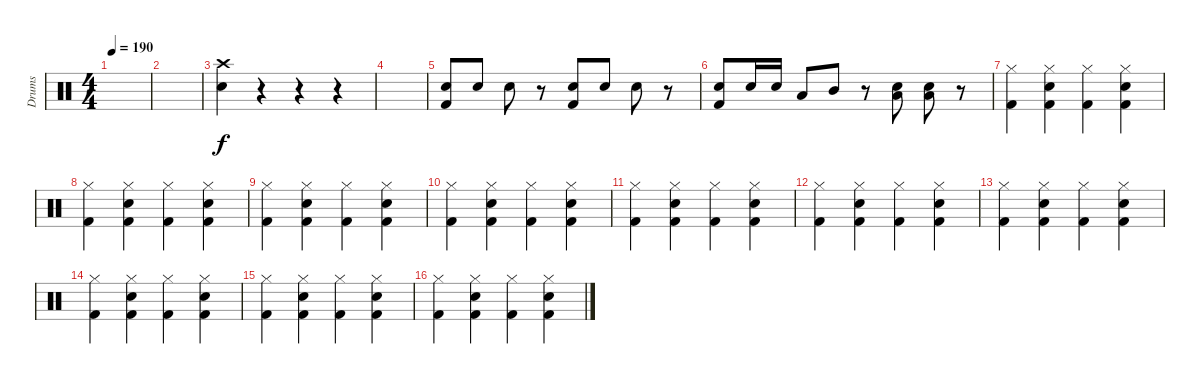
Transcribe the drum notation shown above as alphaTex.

\track ("Drums" "Drums") {instrument percussion}
\staff {score}
\articulation defaults
\ts (4 4)
\tempo 190
\clef neutral
\ks c
|
|
("Crash high (hit)" "Snare (hit) 2").4 r.4 r.4 r.4 |
|
("Snare (hit) 2" "Kick (hit) 2").8 "Snare (hit) 2".8 "Snare (hit) 2".8 r.8 ("Snare (hit) 2" "Kick (hit) 2").8 "Snare (hit) 2".8 "Snare (hit) 2".8 r.8 |
("Snare (hit) 2" "Kick (hit) 2").8 "Snare (hit) 2".16 "Snare (hit) 2".16 "Low Tom (hit)".8 "Mid Tom (hit)".8 r.8 ("Snare (hit) 2" "Low Floor Tom (hit)").8 ("Snare (hit) 2" "Low Floor Tom (hit)").8 r.8 |
("Hi-Hat (closed)" "Kick (hit) 2").4 ("Hi-Hat (closed)" "Snare (hit) 2" "Kick (hit) 2").4 ("Hi-Hat (closed)" "Kick (hit) 2").4 ("Hi-Hat (closed)" "Snare (hit) 2" "Kick (hit) 2").4 |
("Hi-Hat (closed)" "Kick (hit) 2").4 ("Hi-Hat (closed)" "Snare (hit) 2" "Kick (hit) 2").4 ("Hi-Hat (closed)" "Kick (hit) 2").4 ("Hi-Hat (closed)" "Snare (hit) 2" "Kick (hit) 2").4 |
("Hi-Hat (closed)" "Kick (hit) 2").4 ("Hi-Hat (closed)" "Snare (hit) 2" "Kick (hit) 2").4 ("Hi-Hat (closed)" "Kick (hit) 2").4 ("Hi-Hat (closed)" "Snare (hit) 2" "Kick (hit) 2").4 |
("Hi-Hat (closed)" "Kick (hit) 2").4 ("Hi-Hat (closed)" "Snare (hit) 2" "Kick (hit) 2").4 ("Hi-Hat (closed)" "Kick (hit) 2").4 ("Hi-Hat (closed)" "Snare (hit) 2" "Kick (hit) 2").4 |
("Hi-Hat (closed)" "Kick (hit) 2").4 ("Hi-Hat (closed)" "Snare (hit) 2" "Kick (hit) 2").4 ("Hi-Hat (closed)" "Kick (hit) 2").4 ("Hi-Hat (closed)" "Snare (hit) 2" "Kick (hit) 2").4 |
("Hi-Hat (closed)" "Kick (hit) 2").4 ("Hi-Hat (closed)" "Snare (hit) 2" "Kick (hit) 2").4 ("Hi-Hat (closed)" "Kick (hit) 2").4 ("Hi-Hat (closed)" "Snare (hit) 2" "Kick (hit) 2").4 |
("Hi-Hat (closed)" "Kick (hit) 2").4 ("Hi-Hat (closed)" "Snare (hit) 2" "Kick (hit) 2").4 ("Hi-Hat (closed)" "Kick (hit) 2").4 ("Hi-Hat (closed)" "Snare (hit) 2" "Kick (hit) 2").4 |
("Hi-Hat (closed)" "Kick (hit) 2").4 ("Hi-Hat (closed)" "Snare (hit) 2" "Kick (hit) 2").4 ("Hi-Hat (closed)" "Kick (hit) 2").4 ("Hi-Hat (closed)" "Snare (hit) 2" "Kick (hit) 2").4 |
("Hi-Hat (closed)" "Kick (hit) 2").4 ("Hi-Hat (closed)" "Snare (hit) 2" "Kick (hit) 2").4 ("Hi-Hat (closed)" "Kick (hit) 2").4 ("Hi-Hat (closed)" "Snare (hit) 2" "Kick (hit) 2").4 |
("Hi-Hat (closed)" "Kick (hit) 2").4 ("Hi-Hat (closed)" "Snare (hit) 2" "Kick (hit) 2").4 ("Hi-Hat (closed)" "Kick (hit) 2").4 ("Hi-Hat (closed)" "Snare (hit) 2" "Kick (hit) 2").4
